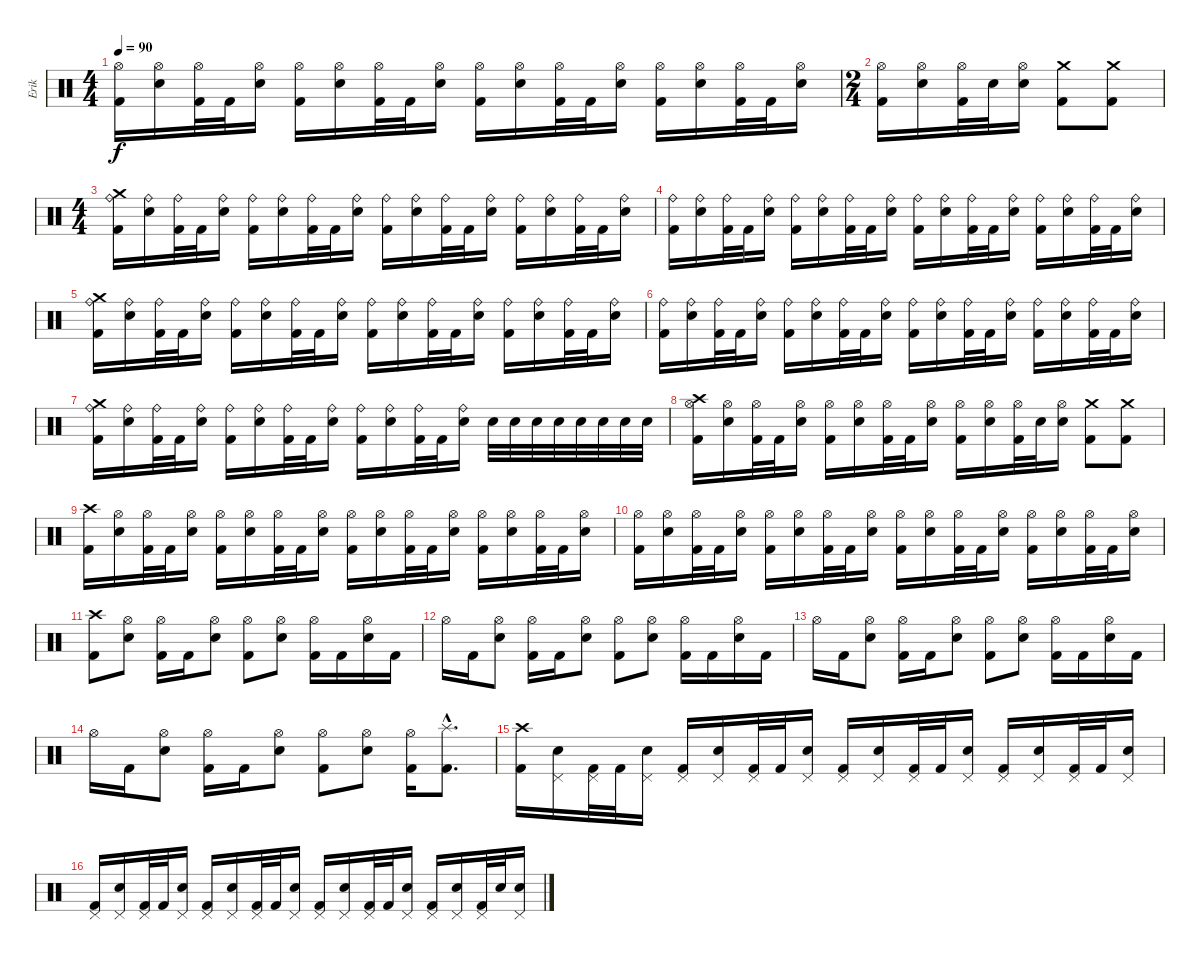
\track ("Erik" "Erik") {instrument percussion}
\staff {score}
\articulation defaults
\ts (4 4)
\tempo 90
\clef neutral
\ks c
("Hi-Hat (open)" "Kick (hit) 2").16{dy f} ("Hi-Hat (open)" "Electric Snare (hit)").16 ("Hi-Hat (open)" "Kick (hit) 2").32 "Kick (hit) 2".32 ("Hi-Hat (open)" "Electric Snare (hit)").16 ("Hi-Hat (open)" "Kick (hit) 2").16 ("Hi-Hat (open)" "Electric Snare (hit)").16 ("Hi-Hat (open)" "Kick (hit) 2").32 "Kick (hit) 2".32 ("Hi-Hat (open)" "Electric Snare (hit)").16 ("Hi-Hat (open)" "Kick (hit) 2").16 ("Hi-Hat (open)" "Electric Snare (hit)").16 ("Hi-Hat (open)" "Kick (hit) 2").32 "Kick (hit) 2".32 ("Hi-Hat (open)" "Electric Snare (hit)").16 ("Hi-Hat (open)" "Kick (hit) 2").16 ("Hi-Hat (open)" "Electric Snare (hit)").16 ("Hi-Hat (open)" "Kick (hit) 2").32 "Kick (hit) 2".32 ("Hi-Hat (open)" "Electric Snare (hit)").16 |
\ts (2 4)
("Hi-Hat (open)" "Kick (hit) 2").16 ("Hi-Hat (open)" "Electric Snare (hit)").16 ("Hi-Hat (open)" "Kick (hit) 2").32 "Electric Snare (hit)".32 ("Hi-Hat (open)" "Electric Snare (hit)").16 ("Crash medium (hit)" "Kick (hit) 2").8 ("Crash medium (hit)" "Kick (hit) 2").8 |
\ts (4 4)
("Crash medium (hit)" "Ride (bell)" "Kick (hit) 2").16 ("Ride (bell)" "Electric Snare (hit)").16 ("Ride (bell)" "Kick (hit) 2").32 "Kick (hit) 2".32 ("Ride (bell)" "Electric Snare (hit)").16 ("Ride (bell)" "Kick (hit) 2").16 ("Ride (bell)" "Electric Snare (hit)").16 ("Ride (bell)" "Kick (hit) 2").32 "Kick (hit) 2".32 ("Ride (bell)" "Electric Snare (hit)").16 ("Ride (bell)" "Kick (hit) 2").16 ("Ride (bell)" "Electric Snare (hit)").16 ("Ride (bell)" "Kick (hit) 2").32 "Kick (hit) 2".32 ("Ride (bell)" "Electric Snare (hit)").16 ("Ride (bell)" "Kick (hit) 2").16 ("Ride (bell)" "Electric Snare (hit)").16 ("Ride (bell)" "Kick (hit) 2").32 "Kick (hit) 2".32 ("Ride (bell)" "Electric Snare (hit)").16 |
("Ride (bell)" "Kick (hit) 2").16 ("Ride (bell)" "Electric Snare (hit)").16 ("Ride (bell)" "Kick (hit) 2").32 "Kick (hit) 2".32 ("Ride (bell)" "Electric Snare (hit)").16 ("Ride (bell)" "Kick (hit) 2").16 ("Ride (bell)" "Electric Snare (hit)").16 ("Ride (bell)" "Kick (hit) 2").32 "Kick (hit) 2".32 ("Ride (bell)" "Electric Snare (hit)").16 ("Ride (bell)" "Kick (hit) 2").16 ("Ride (bell)" "Electric Snare (hit)").16 ("Ride (bell)" "Kick (hit) 2").32 "Kick (hit) 2".32 ("Ride (bell)" "Electric Snare (hit)").16 ("Ride (bell)" "Kick (hit) 2").16 ("Ride (bell)" "Electric Snare (hit)").16 ("Ride (bell)" "Kick (hit) 2").32 "Kick (hit) 2".32 ("Ride (bell)" "Electric Snare (hit)").16 |
("Crash medium (hit)" "Ride (bell)" "Kick (hit) 2").16 ("Ride (bell)" "Electric Snare (hit)").16 ("Ride (bell)" "Kick (hit) 2").32 "Kick (hit) 2".32 ("Ride (bell)" "Electric Snare (hit)").16 ("Ride (bell)" "Kick (hit) 2").16 ("Ride (bell)" "Electric Snare (hit)").16 ("Ride (bell)" "Kick (hit) 2").32 "Kick (hit) 2".32 ("Ride (bell)" "Electric Snare (hit)").16 ("Ride (bell)" "Kick (hit) 2").16 ("Ride (bell)" "Electric Snare (hit)").16 ("Ride (bell)" "Kick (hit) 2").32 "Kick (hit) 2".32 ("Ride (bell)" "Electric Snare (hit)").16 ("Ride (bell)" "Kick (hit) 2").16 ("Ride (bell)" "Electric Snare (hit)").16 ("Ride (bell)" "Kick (hit) 2").32 "Kick (hit) 2".32 ("Ride (bell)" "Electric Snare (hit)").16 |
("Ride (bell)" "Kick (hit) 2").16 ("Ride (bell)" "Electric Snare (hit)").16 ("Ride (bell)" "Kick (hit) 2").32 "Kick (hit) 2".32 ("Ride (bell)" "Electric Snare (hit)").16 ("Ride (bell)" "Kick (hit) 2").16 ("Ride (bell)" "Electric Snare (hit)").16 ("Ride (bell)" "Kick (hit) 2").32 "Kick (hit) 2".32 ("Ride (bell)" "Electric Snare (hit)").16 ("Ride (bell)" "Kick (hit) 2").16 ("Ride (bell)" "Electric Snare (hit)").16 ("Ride (bell)" "Kick (hit) 2").32 "Kick (hit) 2".32 ("Ride (bell)" "Electric Snare (hit)").16 ("Ride (bell)" "Kick (hit) 2").16 ("Ride (bell)" "Electric Snare (hit)").16 ("Ride (bell)" "Kick (hit) 2").32 "Kick (hit) 2".32 ("Ride (bell)" "Electric Snare (hit)").16 |
("Crash medium (hit)" "Ride (bell)" "Kick (hit) 2").16 ("Ride (bell)" "Electric Snare (hit)").16 ("Ride (bell)" "Kick (hit) 2").32 "Kick (hit) 2".32 ("Ride (bell)" "Electric Snare (hit)").16 ("Ride (bell)" "Kick (hit) 2").16 ("Ride (bell)" "Electric Snare (hit)").16 ("Ride (bell)" "Kick (hit) 2").32 "Kick (hit) 2".32 ("Ride (bell)" "Electric Snare (hit)").16 ("Ride (bell)" "Kick (hit) 2").16 ("Ride (bell)" "Electric Snare (hit)").16 ("Ride (bell)" "Kick (hit) 2").32 "Kick (hit) 2".32 ("Ride (bell)" "Electric Snare (hit)").16 "Electric Snare (hit)".32 "Electric Snare (hit)".32 "Electric Snare (hit)".32 "Electric Snare (hit)".32 "Electric Snare (hit)".32 "Electric Snare (hit)".32 "Electric Snare (hit)".32 "Electric Snare (hit)".32 |
("Crash high (hit)" "Hi-Hat (open)" "Kick (hit) 2").16 ("Hi-Hat (open)" "Electric Snare (hit)").16 ("Hi-Hat (open)" "Kick (hit) 2").32 "Kick (hit) 2".32 ("Hi-Hat (open)" "Electric Snare (hit)").16 ("Hi-Hat (open)" "Kick (hit) 2").16 ("Hi-Hat (open)" "Electric Snare (hit)").16 ("Hi-Hat (open)" "Kick (hit) 2").32 "Kick (hit) 2".32 ("Hi-Hat (open)" "Electric Snare (hit)").16 ("Hi-Hat (open)" "Kick (hit) 2").16 ("Hi-Hat (open)" "Electric Snare (hit)").16 ("Hi-Hat (open)" "Kick (hit) 2").32 "Electric Snare (hit)".32 ("Hi-Hat (open)" "Electric Snare (hit)").16 ("Crash medium (hit)" "Kick (hit) 2").8 ("Crash medium (hit)" "Kick (hit) 2").8 |
("Crash high (hit)" "Kick (hit) 2").16 ("Hi-Hat (open)" "Electric Snare (hit)").16 ("Hi-Hat (open)" "Kick (hit) 2").32 "Kick (hit) 2".32 ("Hi-Hat (open)" "Electric Snare (hit)").16 ("Hi-Hat (open)" "Kick (hit) 2").16 ("Hi-Hat (open)" "Electric Snare (hit)").16 ("Hi-Hat (open)" "Kick (hit) 2").32 "Kick (hit) 2".32 ("Hi-Hat (open)" "Electric Snare (hit)").16 ("Hi-Hat (open)" "Kick (hit) 2").16 ("Hi-Hat (open)" "Electric Snare (hit)").16 ("Hi-Hat (open)" "Kick (hit) 2").32 "Kick (hit) 2".32 ("Hi-Hat (open)" "Electric Snare (hit)").16 ("Hi-Hat (open)" "Kick (hit) 2").16 ("Hi-Hat (open)" "Electric Snare (hit)").16 ("Hi-Hat (open)" "Kick (hit) 2").32 "Kick (hit) 2".32 ("Hi-Hat (open)" "Electric Snare (hit)").16 |
("Hi-Hat (open)" "Kick (hit) 2").16 ("Hi-Hat (open)" "Electric Snare (hit)").16 ("Hi-Hat (open)" "Kick (hit) 2").32 "Kick (hit) 2".32 ("Hi-Hat (open)" "Electric Snare (hit)").16 ("Hi-Hat (open)" "Kick (hit) 2").16 ("Hi-Hat (open)" "Electric Snare (hit)").16 ("Hi-Hat (open)" "Kick (hit) 2").32 "Kick (hit) 2".32 ("Hi-Hat (open)" "Electric Snare (hit)").16 ("Hi-Hat (open)" "Kick (hit) 2").16 ("Hi-Hat (open)" "Electric Snare (hit)").16 ("Hi-Hat (open)" "Kick (hit) 2").32 "Kick (hit) 2".32 ("Hi-Hat (open)" "Electric Snare (hit)").16 ("Hi-Hat (open)" "Kick (hit) 2").16 ("Hi-Hat (open)" "Electric Snare (hit)").16 ("Hi-Hat (open)" "Kick (hit) 2").32 "Kick (hit) 2".32 ("Hi-Hat (open)" "Electric Snare (hit)").16 |
("Crash high (hit)" "Kick (hit) 2").8 ("Hi-Hat (open)" "Electric Snare (hit)").8 ("Hi-Hat (open)" "Kick (hit) 2").16 "Kick (hit) 2".16 ("Hi-Hat (open)" "Electric Snare (hit)").8 ("Hi-Hat (open)" "Kick (hit) 2").8 ("Hi-Hat (open)" "Electric Snare (hit)").8 ("Hi-Hat (open)" "Kick (hit) 2").16 "Kick (hit) 2".16 ("Hi-Hat (open)" "Electric Snare (hit)").16 "Kick (hit) 2".16 |
"Hi-Hat (open)".16 "Kick (hit) 2".16 ("Hi-Hat (open)" "Electric Snare (hit)").8 ("Hi-Hat (open)" "Kick (hit) 2").16 "Kick (hit) 2".16 ("Hi-Hat (open)" "Electric Snare (hit)").8 ("Hi-Hat (open)" "Kick (hit) 2").8 ("Hi-Hat (open)" "Electric Snare (hit)").8 ("Hi-Hat (open)" "Kick (hit) 2").16 "Kick (hit) 2".16 ("Hi-Hat (open)" "Electric Snare (hit)").16 "Kick (hit) 2".16 |
"Hi-Hat (open)".16 "Kick (hit) 2".16 ("Hi-Hat (open)" "Electric Snare (hit)").8 ("Hi-Hat (open)" "Kick (hit) 2").16 "Kick (hit) 2".16 ("Hi-Hat (open)" "Electric Snare (hit)").8 ("Hi-Hat (open)" "Kick (hit) 2").8 ("Hi-Hat (open)" "Electric Snare (hit)").8 ("Hi-Hat (open)" "Kick (hit) 2").16 "Kick (hit) 2".16 ("Hi-Hat (open)" "Electric Snare (hit)").16 "Kick (hit) 2".16 |
"Hi-Hat (open)".16 "Kick (hit) 2".16 ("Hi-Hat (open)" "Electric Snare (hit)").8 ("Hi-Hat (open)" "Kick (hit) 2").16 "Kick (hit) 2".16 ("Hi-Hat (open)" "Electric Snare (hit)").8 ("Hi-Hat (open)" "Kick (hit) 2").8 ("Hi-Hat (open)" "Electric Snare (hit)").8 ("Hi-Hat (open)" "Kick (hit) 2").16 ("Splash (hit)"{hac} "Kick (hit) 2"{hac}).8{d} |
("Crash high (hit)" "Kick (hit) 2").16 ("Pedal Hi-Hat (hit)" "Electric Snare (hit)").16 ("Pedal Hi-Hat (hit)" "Kick (hit) 2").32 "Kick (hit) 2".32 ("Pedal Hi-Hat (hit)" "Electric Snare (hit)").16 ("Pedal Hi-Hat (hit)" "Kick (hit) 2").16 ("Pedal Hi-Hat (hit)" "Electric Snare (hit)").16 ("Pedal Hi-Hat (hit)" "Kick (hit) 2").32 "Kick (hit) 2".32 ("Pedal Hi-Hat (hit)" "Electric Snare (hit)").16 ("Pedal Hi-Hat (hit)" "Kick (hit) 2").16 ("Pedal Hi-Hat (hit)" "Electric Snare (hit)").16 ("Pedal Hi-Hat (hit)" "Kick (hit) 2").32 "Kick (hit) 2".32 ("Pedal Hi-Hat (hit)" "Electric Snare (hit)").16 ("Pedal Hi-Hat (hit)" "Kick (hit) 2").16 ("Pedal Hi-Hat (hit)" "Electric Snare (hit)").16 ("Pedal Hi-Hat (hit)" "Kick (hit) 2").32 "Kick (hit) 2".32 ("Pedal Hi-Hat (hit)" "Electric Snare (hit)").16 |
("Pedal Hi-Hat (hit)" "Kick (hit) 2").16 ("Pedal Hi-Hat (hit)" "Electric Snare (hit)").16 ("Pedal Hi-Hat (hit)" "Kick (hit) 2").32 "Kick (hit) 2".32 ("Pedal Hi-Hat (hit)" "Electric Snare (hit)").16 ("Pedal Hi-Hat (hit)" "Kick (hit) 2").16 ("Pedal Hi-Hat (hit)" "Electric Snare (hit)").16 ("Pedal Hi-Hat (hit)" "Kick (hit) 2").32 "Kick (hit) 2".32 ("Pedal Hi-Hat (hit)" "Electric Snare (hit)").16 ("Pedal Hi-Hat (hit)" "Kick (hit) 2").16 ("Pedal Hi-Hat (hit)" "Electric Snare (hit)").16 ("Pedal Hi-Hat (hit)" "Kick (hit) 2").32 "Kick (hit) 2".32 ("Pedal Hi-Hat (hit)" "Electric Snare (hit)").16 ("Pedal Hi-Hat (hit)" "Kick (hit) 2").16 ("Pedal Hi-Hat (hit)" "Electric Snare (hit)").16 ("Pedal Hi-Hat (hit)" "Kick (hit) 2").32 "Electric Snare (hit)".32 ("Pedal Hi-Hat (hit)" "Electric Snare (hit)").16
